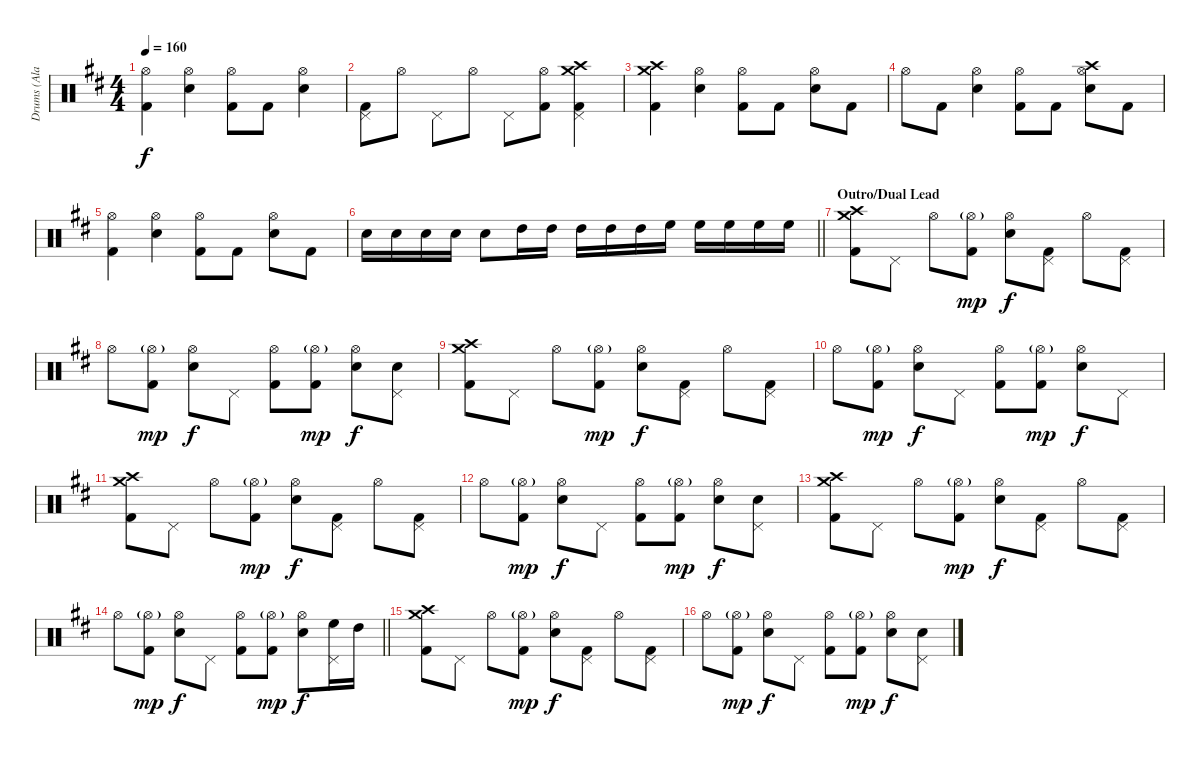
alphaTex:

\track ("Drums (Ala Pyle)" "Drums (Ala") {instrument percussion}
\staff {score}
\articulation defaults
\ts (4 4)
\tempo 160
\clef neutral
\ks d
("Hi-Hat (open)" "Kick (hit) 2").4{dy f} ("Snare (hit) 2" "Hi-Hat (open)").4 ("Hi-Hat (open)" "Kick (hit) 2").8 "Kick (hit) 2".8 ("Snare (hit) 2" "Hi-Hat (open)").4 |
("Pedal Hi-Hat (hit)" "Kick (hit) 2").8 "Hi-Hat (open)".8 "Pedal Hi-Hat (hit)".8 "Hi-Hat (open)".8 "Pedal Hi-Hat (hit)".8 ("Hi-Hat (open)" "Kick (hit) 2").8 ("Crash high (hit)" "Crash medium (hit)" "Pedal Hi-Hat (hit)" "Kick (hit) 2").4 |
("Crash medium (hit)" "Crash high (hit)" "Kick (hit) 2").4 ("Snare (hit) 2" "Hi-Hat (open)").4 ("Hi-Hat (open)" "Kick (hit) 2").8 "Kick (hit) 2".8 ("Snare (hit) 2" "Hi-Hat (open)").8 "Kick (hit) 2".8 |
"Hi-Hat (open)".8 "Kick (hit) 2".8 ("Snare (hit) 2" "Hi-Hat (open)").4 ("Hi-Hat (open)" "Kick (hit) 2").8 "Kick (hit) 2".8 ("Crash high (hit)" "Snare (hit) 2" "Hi-Hat (open)").8 "Kick (hit) 2".8 |
("Hi-Hat (open)" "Kick (hit) 2").4 ("Snare (hit) 2" "Hi-Hat (open)").4 ("Hi-Hat (open)" "Kick (hit) 2").8 "Kick (hit) 2".8 ("Snare (hit) 2" "Hi-Hat (open)").8 "Kick (hit) 2".8 |
\barLineRight lightlight "Snare (hit) 2".16 "Snare (hit) 2".16 "Snare (hit) 2".16 "Snare (hit) 2".16 "Snare (hit) 2".8 "High Tom (hit)".16 "High Tom (hit)".16 "High Tom (hit)".16 "High Tom (hit)".16 "High Tom (hit)".16 "High Floor Tom (hit)".16 "High Floor Tom (hit)".16 "High Floor Tom (hit)".16 "High Floor Tom (hit)".16 "High Floor Tom (hit)".16
|
\section ("" "Outro/Dual Lead")
("Crash medium (hit)" "Crash high (hit)" "Kick (hit) 2").8 "Pedal Hi-Hat (hit)".8 "Hi-Hat (open)".8 ("Hi-Hat (open)"{g} "Kick (hit) 2").8{dy mp} ("Snare (hit) 2" "Hi-Hat (open)").8{dy f} ("Pedal Hi-Hat (hit)" "Kick (hit) 2").8 "Hi-Hat (open)".8 ("Pedal Hi-Hat (hit)" "Kick (hit) 2").8 |
"Hi-Hat (open)".8 ("Hi-Hat (open)"{g} "Kick (hit) 2").8{dy mp} ("Snare (hit) 2" "Hi-Hat (open)").8{dy f} "Pedal Hi-Hat (hit)".8 ("Hi-Hat (open)" "Kick (hit) 2").8 ("Hi-Hat (open)"{g} "Kick (hit) 2").8{dy mp} ("Snare (hit) 2" "Hi-Hat (open)").8{dy f} ("Snare (hit) 2" "Pedal Hi-Hat (hit)").8 |
("Crash medium (hit)" "Crash high (hit)" "Kick (hit) 2").8 "Pedal Hi-Hat (hit)".8 "Hi-Hat (open)".8 ("Hi-Hat (open)"{g} "Kick (hit) 2").8{dy mp} ("Snare (hit) 2" "Hi-Hat (open)").8{dy f} ("Pedal Hi-Hat (hit)" "Kick (hit) 2").8 "Hi-Hat (open)".8 ("Pedal Hi-Hat (hit)" "Kick (hit) 2").8 |
"Hi-Hat (open)".8 ("Hi-Hat (open)"{g} "Kick (hit) 2").8{dy mp} ("Snare (hit) 2" "Hi-Hat (open)").8{dy f} "Pedal Hi-Hat (hit)".8 ("Hi-Hat (open)" "Kick (hit) 2").8 ("Hi-Hat (open)"{g} "Kick (hit) 2").8{dy mp} ("Snare (hit) 2" "Hi-Hat (open)").8{dy f} "Pedal Hi-Hat (hit)".8 |
("Crash medium (hit)" "Crash high (hit)" "Kick (hit) 2").8 "Pedal Hi-Hat (hit)".8 "Hi-Hat (open)".8 ("Hi-Hat (open)"{g} "Kick (hit) 2").8{dy mp} ("Snare (hit) 2" "Hi-Hat (open)").8{dy f} ("Pedal Hi-Hat (hit)" "Kick (hit) 2").8 "Hi-Hat (open)".8 ("Pedal Hi-Hat (hit)" "Kick (hit) 2").8 |
"Hi-Hat (open)".8 ("Hi-Hat (open)"{g} "Kick (hit) 2").8{dy mp} ("Snare (hit) 2" "Hi-Hat (open)").8{dy f} "Pedal Hi-Hat (hit)".8 ("Hi-Hat (open)" "Kick (hit) 2").8 ("Hi-Hat (open)"{g} "Kick (hit) 2").8{dy mp} ("Snare (hit) 2" "Hi-Hat (open)").8{dy f} ("Snare (hit) 2" "Pedal Hi-Hat (hit)").8 |
("Crash medium (hit)" "Crash high (hit)" "Kick (hit) 2").8 "Pedal Hi-Hat (hit)".8 "Hi-Hat (open)".8 ("Hi-Hat (open)"{g} "Kick (hit) 2").8{dy mp} ("Snare (hit) 2" "Hi-Hat (open)").8{dy f} ("Pedal Hi-Hat (hit)" "Kick (hit) 2").8 "Hi-Hat (open)".8 ("Pedal Hi-Hat (hit)" "Kick (hit) 2").8 |
\barLineRight lightlight "Hi-Hat (open)".8
("Hi-Hat (open)"{g} "Kick (hit) 2").8{dy mp} ("Snare (hit) 2" "Hi-Hat (open)").8{dy f} "Pedal Hi-Hat (hit)".8 ("Hi-Hat (open)" "Kick (hit) 2").8 ("Hi-Hat (open)"{g} "Kick (hit) 2").8{dy mp} ("Snare (hit) 2" "Hi-Hat (open)").8{dy f} ("Pedal Hi-Hat (hit)" "High Floor Tom (hit)").16 "High Tom (hit)".16 |
("Crash medium (hit)" "Crash high (hit)" "Kick (hit) 2").8 "Pedal Hi-Hat (hit)".8 "Hi-Hat (open)".8 ("Hi-Hat (open)"{g} "Kick (hit) 2").8{dy mp} ("Snare (hit) 2" "Hi-Hat (open)").8{dy f} ("Pedal Hi-Hat (hit)" "Kick (hit) 2").8 "Hi-Hat (open)".8 ("Pedal Hi-Hat (hit)" "Kick (hit) 2").8 |
"Hi-Hat (open)".8 ("Hi-Hat (open)"{g} "Kick (hit) 2").8{dy mp} ("Snare (hit) 2" "Hi-Hat (open)").8{dy f} "Pedal Hi-Hat (hit)".8 ("Hi-Hat (open)" "Kick (hit) 2").8 ("Hi-Hat (open)"{g} "Kick (hit) 2").8{dy mp} ("Snare (hit) 2" "Hi-Hat (open)").8{dy f} ("Snare (hit) 2" "Pedal Hi-Hat (hit)").8
